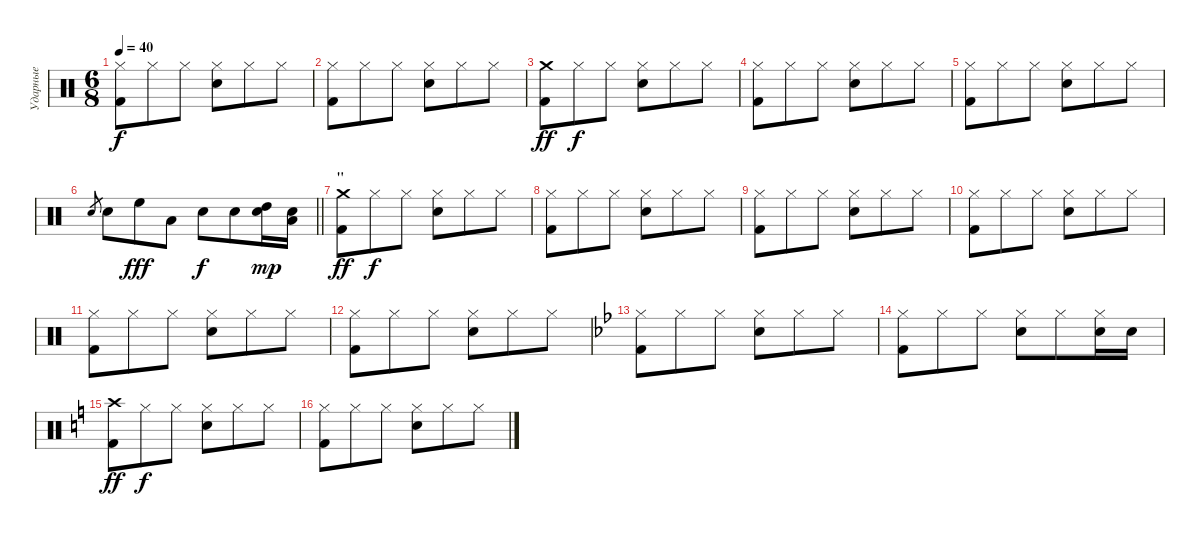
\track ("Ударные" "Ударные") {instrument percussion}
\staff {score}
\articulation defaults
\ts (6 8)
\tempo 40
\clef neutral
\ks c
("Hi-Hat (closed)" "Kick (hit) 2").8{dy f} "Hi-Hat (closed)".8 "Hi-Hat (closed)".8 ("Hi-Hat (closed)" "Snare (hit) 2").8 "Hi-Hat (closed)".8 "Hi-Hat (closed)".8 |
("Hi-Hat (closed)" "Kick (hit) 2").8 "Hi-Hat (closed)".8 "Hi-Hat (closed)".8 ("Hi-Hat (closed)" "Snare (hit) 2").8 "Hi-Hat (closed)".8 "Hi-Hat (closed)".8 |
("Crash medium (hit)" "Kick (hit) 2").8{dy ff} "Hi-Hat (closed)".8{dy f} "Hi-Hat (closed)".8 ("Hi-Hat (closed)" "Snare (hit) 2").8 "Hi-Hat (closed)".8 "Hi-Hat (closed)".8 |
("Hi-Hat (closed)" "Kick (hit) 2").8 "Hi-Hat (closed)".8 "Hi-Hat (closed)".8 ("Hi-Hat (closed)" "Snare (hit) 2").8 "Hi-Hat (closed)".8 "Hi-Hat (closed)".8 |
("Hi-Hat (closed)" "Kick (hit) 2").8 "Hi-Hat (closed)".8 "Hi-Hat (closed)".8 ("Hi-Hat (closed)" "Snare (hit) 2").8 "Hi-Hat (closed)".8 "Hi-Hat (closed)".8 |
\barLineRight lightlight "Snare (hit) 2".8{gr} "Snare (hit) 2".8 "High Floor Tom (hit)".8{dy fff} "Low Tom (hit)".8 "Snare (hit) 2".8{dy f} "Snare (hit) 2".8
("Snare (hit) 2" "High Tom (hit)").16{dy mp} ("Snare (hit) 2" "Low Tom (hit)").16 |
\section ("" "\"")
("Crash medium (hit)" "Kick (hit) 2").8{dy ff} "Hi-Hat (closed)".8{dy f} "Hi-Hat (closed)".8 ("Hi-Hat (closed)" "Snare (hit) 2").8 "Hi-Hat (closed)".8 "Hi-Hat (closed)".8 |
("Hi-Hat (closed)" "Kick (hit) 2").8 "Hi-Hat (closed)".8 "Hi-Hat (closed)".8 ("Hi-Hat (closed)" "Snare (hit) 2").8 "Hi-Hat (closed)".8 "Hi-Hat (closed)".8 |
("Hi-Hat (closed)" "Kick (hit) 2").8 "Hi-Hat (closed)".8 "Hi-Hat (closed)".8 ("Hi-Hat (closed)" "Snare (hit) 2").8 "Hi-Hat (closed)".8 "Hi-Hat (closed)".8 |
("Hi-Hat (closed)" "Kick (hit) 2").8 "Hi-Hat (closed)".8 "Hi-Hat (closed)".8 ("Hi-Hat (closed)" "Snare (hit) 2").8 "Hi-Hat (closed)".8 "Hi-Hat (closed)".8 |
("Hi-Hat (closed)" "Kick (hit) 2").8 "Hi-Hat (closed)".8 "Hi-Hat (closed)".8 ("Hi-Hat (closed)" "Snare (hit) 2").8 "Hi-Hat (closed)".8 "Hi-Hat (closed)".8 |
("Hi-Hat (closed)" "Kick (hit) 2").8 "Hi-Hat (closed)".8 "Hi-Hat (closed)".8 ("Hi-Hat (closed)" "Snare (hit) 2").8 "Hi-Hat (closed)".8 "Hi-Hat (closed)".8 |
\ks bb
("Hi-Hat (closed)" "Kick (hit) 2").8 "Hi-Hat (closed)".8 "Hi-Hat (closed)".8 ("Hi-Hat (closed)" "Snare (hit) 2").8 "Hi-Hat (closed)".8 "Hi-Hat (closed)".8 |
("Hi-Hat (closed)" "Kick (hit) 2").8 "Hi-Hat (closed)".8 "Hi-Hat (closed)".8 ("Hi-Hat (closed)" "Snare (hit) 2").8 "Hi-Hat (closed)".8 ("Hi-Hat (closed)" "Snare (hit) 2").16 "Snare (hit) 2".16 |
\ks c
("Crash high (hit)" "Kick (hit) 2").8{dy ff} "Hi-Hat (closed)".8{dy f} "Hi-Hat (closed)".8 ("Hi-Hat (closed)" "Snare (hit) 2").8 "Hi-Hat (closed)".8 "Hi-Hat (closed)".8 |
("Hi-Hat (closed)" "Kick (hit) 2").8 "Hi-Hat (closed)".8 "Hi-Hat (closed)".8 ("Hi-Hat (closed)" "Snare (hit) 2").8 "Hi-Hat (closed)".8 "Hi-Hat (closed)".8
